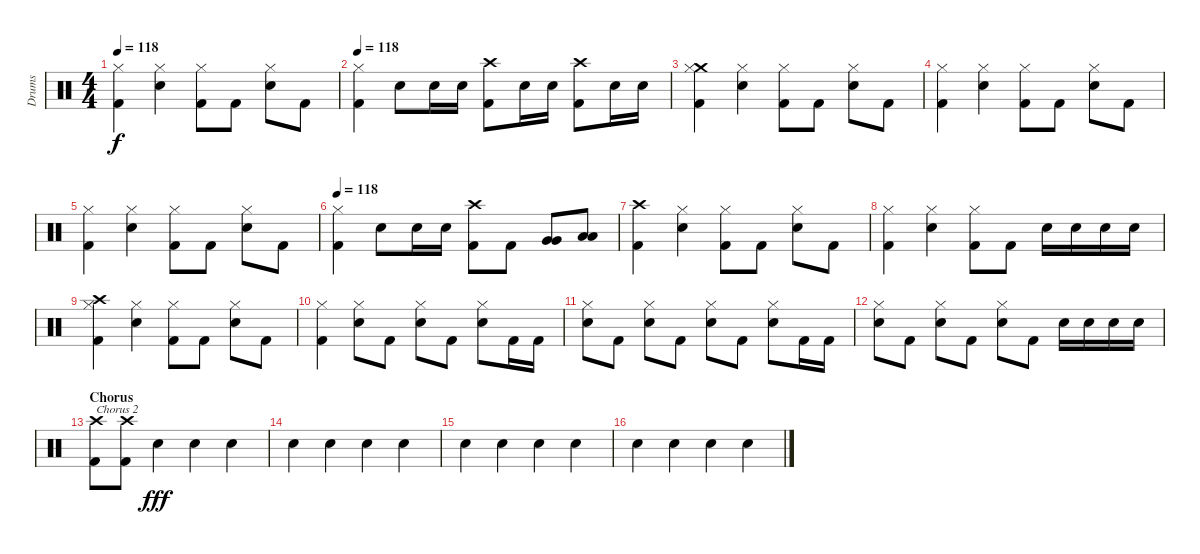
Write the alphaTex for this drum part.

\track ("Drums" "Drums") {instrument percussion}
\staff {score}
\articulation defaults
\ts (4 4)
\tempo 118
\clef neutral
\ks c
("Hi-Hat (closed)" "Kick (hit) 2").4{dy f} ("Hi-Hat (closed)" "Snare (hit) 2").4 ("Hi-Hat (closed)" "Kick (hit) 2").8 "Kick (hit) 2".8 ("Hi-Hat (closed)" "Snare (hit) 2").8 "Kick (hit) 2".8 |
\tempo 118
("Hi-Hat (closed)" "Kick (hit) 2").4 "Snare (hit) 2".8 "Snare (hit) 2".16 "Snare (hit) 2".16 ("Crash high (hit)" "Kick (hit) 2").8 "Snare (hit) 2".16 "Snare (hit) 2".16 ("Crash high (hit)" "Kick (hit) 2").8 "Snare (hit) 2".16 "Snare (hit) 2".16 |
("Crash medium (hit)" "Hi-Hat (closed)" "Kick (hit) 2").4 ("Hi-Hat (closed)" "Snare (hit) 2").4 ("Hi-Hat (closed)" "Kick (hit) 2").8 "Kick (hit) 2".8 ("Hi-Hat (closed)" "Snare (hit) 2").8 "Kick (hit) 2".8 |
("Hi-Hat (closed)" "Kick (hit) 2").4 ("Hi-Hat (closed)" "Snare (hit) 2").4 ("Hi-Hat (closed)" "Kick (hit) 2").8 "Kick (hit) 2".8 ("Hi-Hat (closed)" "Snare (hit) 2").8 "Kick (hit) 2".8 |
("Hi-Hat (closed)" "Kick (hit) 2").4 ("Hi-Hat (closed)" "Snare (hit) 2").4 ("Hi-Hat (closed)" "Kick (hit) 2").8 "Kick (hit) 2".8 ("Hi-Hat (closed)" "Snare (hit) 2").8 "Kick (hit) 2".8 |
\tempo 118
("Hi-Hat (closed)" "Kick (hit) 2").4 "Snare (hit) 2".8 "Snare (hit) 2".16 "Snare (hit) 2".16 ("Crash high (hit)" "Kick (hit) 2").8 "Kick (hit) 2".8 ("Very Low Tom (hit)" "Very Low Tom (hit)").8 ("Low Floor Tom (hit)" "Low Floor Tom (hit)").8 |
("Crash high (hit)" "Kick (hit) 2").4 ("Hi-Hat (closed)" "Snare (hit) 2").4 ("Hi-Hat (closed)" "Kick (hit) 2").8 "Kick (hit) 2".8 ("Hi-Hat (closed)" "Snare (hit) 2").8 "Kick (hit) 2".8 |
("Hi-Hat (closed)" "Kick (hit) 2").4 ("Hi-Hat (closed)" "Snare (hit) 2").4 ("Hi-Hat (closed)" "Kick (hit) 2").8 "Kick (hit) 2".8 "Snare (hit) 2".16 "Snare (hit) 2".16 "Snare (hit) 2".16 "Snare (hit) 2".16 |
("Crash high (hit)" "Hi-Hat (closed)" "Kick (hit) 2").4 ("Hi-Hat (closed)" "Snare (hit) 2").4 ("Hi-Hat (closed)" "Kick (hit) 2").8 "Kick (hit) 2".8 ("Hi-Hat (closed)" "Snare (hit) 2").8 "Kick (hit) 2".8 |
("Hi-Hat (closed)" "Kick (hit) 2").4 ("Hi-Hat (closed)" "Snare (hit) 2").8 "Kick (hit) 2".8 ("Hi-Hat (closed)" "Snare (hit) 2").8 "Kick (hit) 2".8 ("Hi-Hat (closed)" "Snare (hit) 2").8 "Kick (hit) 2".16 "Kick (hit) 2".16 |
("Hi-Hat (closed)" "Snare (hit) 2").8 "Kick (hit) 2".8 ("Hi-Hat (closed)" "Snare (hit) 2").8 "Kick (hit) 2".8 ("Hi-Hat (closed)" "Snare (hit) 2").8 "Kick (hit) 2".8 ("Hi-Hat (closed)" "Snare (hit) 2").8 "Kick (hit) 2".16 "Kick (hit) 2".16 |
("Hi-Hat (closed)" "Snare (hit) 2").8 "Kick (hit) 2".8 ("Hi-Hat (closed)" "Snare (hit) 2").8 "Kick (hit) 2".8 ("Hi-Hat (closed)" "Snare (hit) 2").8 "Kick (hit) 2".8 "Snare (hit) 2".16 "Snare (hit) 2".16 "Snare (hit) 2".16 "Snare (hit) 2".16 |
\section ("" "Chorus")
("Crash high (hit)" "Kick (hit) 2").8{txt "Chorus 2"} ("Crash high (hit)" "Kick (hit) 2").8 "Hand Clap (hit)".4{dy fff volume 16} "Hand Clap (hit)".4 "Hand Clap (hit)".4 |
"Hand Clap (hit)".4 "Hand Clap (hit)".4 "Hand Clap (hit)".4 "Hand Clap (hit)".4 |
"Hand Clap (hit)".4 "Hand Clap (hit)".4 "Hand Clap (hit)".4 "Hand Clap (hit)".4 |
"Hand Clap (hit)".4 "Hand Clap (hit)".4 "Hand Clap (hit)".4 "Hand Clap (hit)".4
